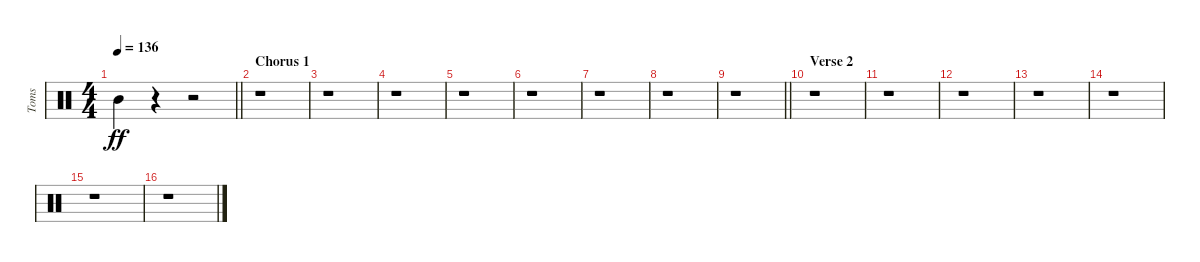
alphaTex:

\track ("Toms" "Toms") {instrument percussion}
\staff {score}
\articulation defaults
\ts (4 4)
\tempo 136
\clef neutral
\barLineRight lightlight
\ks c "Mid Tom (hit)".4{dy ff}
r.4 r.2 |
\section ("" "Chorus 1")
r.1 |
r.1 |
r.1 |
r.1 |
r.1 |
r.1 |
r.1 |
\barLineRight lightlight
r.1 |
\section ("" "Verse 2")
r.1 |
r.1 |
r.1 |
r.1 |
r.1 |
r.1 |
r.1
